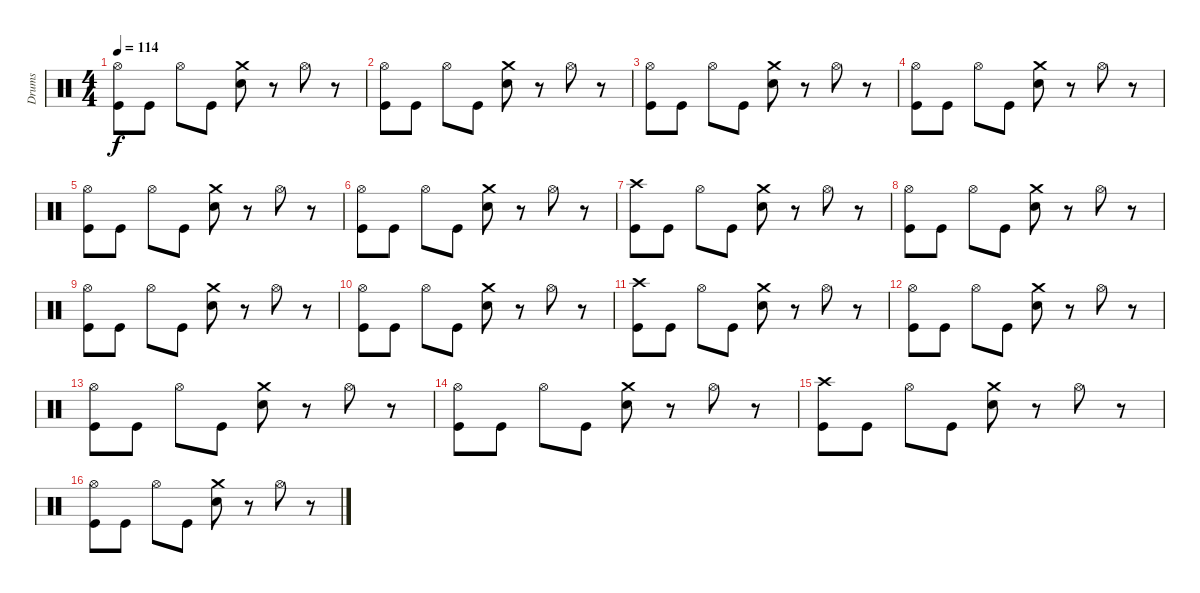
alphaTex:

\track ("Drums" "Drums") {instrument percussion}
\staff {score}
\articulation defaults
\ts (4 4)
\tempo 114
\clef neutral
\ks c
("Kick (hit)" "Hi-Hat (open)").8{dy f} "Kick (hit)".8 "Hi-Hat (open)".8 "Kick (hit)".8 ("Crash medium (hit)" "Electric Snare (hit)").8 r.8 "Hi-Hat (open)".8 r.8 |
("Kick (hit)" "Hi-Hat (open)").8 "Kick (hit)".8 "Hi-Hat (open)".8 "Kick (hit)".8 ("Crash medium (hit)" "Electric Snare (hit)").8 r.8 "Hi-Hat (open)".8 r.8 |
("Kick (hit)" "Hi-Hat (open)").8 "Kick (hit)".8 "Hi-Hat (open)".8 "Kick (hit)".8 ("Crash medium (hit)" "Electric Snare (hit)").8 r.8 "Hi-Hat (open)".8 r.8 |
("Kick (hit)" "Hi-Hat (open)").8 "Kick (hit)".8 "Hi-Hat (open)".8 "Kick (hit)".8 ("Crash medium (hit)" "Electric Snare (hit)").8 r.8 "Hi-Hat (open)".8 r.8 |
("Kick (hit)" "Hi-Hat (open)").8 "Kick (hit)".8 "Hi-Hat (open)".8 "Kick (hit)".8 ("Crash medium (hit)" "Electric Snare (hit)").8 r.8 "Hi-Hat (open)".8 r.8 |
("Kick (hit)" "Hi-Hat (open)").8 "Kick (hit)".8 "Hi-Hat (open)".8 "Kick (hit)".8 ("Crash medium (hit)" "Electric Snare (hit)").8 r.8 "Hi-Hat (open)".8 r.8 |
("Crash high (hit)" "Kick (hit)").8 "Kick (hit)".8 "Hi-Hat (open)".8 "Kick (hit)".8 ("Crash medium (hit)" "Electric Snare (hit)").8 r.8 "Hi-Hat (open)".8 r.8 |
("Kick (hit)" "Hi-Hat (open)").8 "Kick (hit)".8 "Hi-Hat (open)".8 "Kick (hit)".8 ("Crash medium (hit)" "Electric Snare (hit)").8 r.8 "Hi-Hat (open)".8 r.8 |
("Kick (hit)" "Hi-Hat (open)").8 "Kick (hit)".8 "Hi-Hat (open)".8 "Kick (hit)".8 ("Crash medium (hit)" "Electric Snare (hit)").8 r.8 "Hi-Hat (open)".8 r.8 |
("Kick (hit)" "Hi-Hat (open)").8 "Kick (hit)".8 "Hi-Hat (open)".8 "Kick (hit)".8 ("Crash medium (hit)" "Electric Snare (hit)").8 r.8 "Hi-Hat (open)".8 r.8 |
("Crash high (hit)" "Kick (hit)").8 "Kick (hit)".8 "Hi-Hat (open)".8 "Kick (hit)".8 ("Crash medium (hit)" "Electric Snare (hit)").8 r.8 "Hi-Hat (open)".8 r.8 |
("Kick (hit)" "Hi-Hat (open)").8 "Kick (hit)".8 "Hi-Hat (open)".8 "Kick (hit)".8 ("Crash medium (hit)" "Electric Snare (hit)").8 r.8 "Hi-Hat (open)".8 r.8 |
("Kick (hit)" "Hi-Hat (open)").8 "Kick (hit)".8 "Hi-Hat (open)".8 "Kick (hit)".8 ("Crash medium (hit)" "Electric Snare (hit)").8 r.8 "Hi-Hat (open)".8 r.8 |
("Kick (hit)" "Hi-Hat (open)").8 "Kick (hit)".8 "Hi-Hat (open)".8 "Kick (hit)".8 ("Crash medium (hit)" "Electric Snare (hit)").8 r.8 "Hi-Hat (open)".8 r.8 |
("Crash high (hit)" "Kick (hit)").8 "Kick (hit)".8 "Hi-Hat (open)".8 "Kick (hit)".8 ("Crash medium (hit)" "Electric Snare (hit)").8 r.8 "Hi-Hat (open)".8 r.8 |
("Kick (hit)" "Hi-Hat (open)").8 "Kick (hit)".8 "Hi-Hat (open)".8 "Kick (hit)".8 ("Crash medium (hit)" "Electric Snare (hit)").8 r.8 "Hi-Hat (open)".8 r.8
